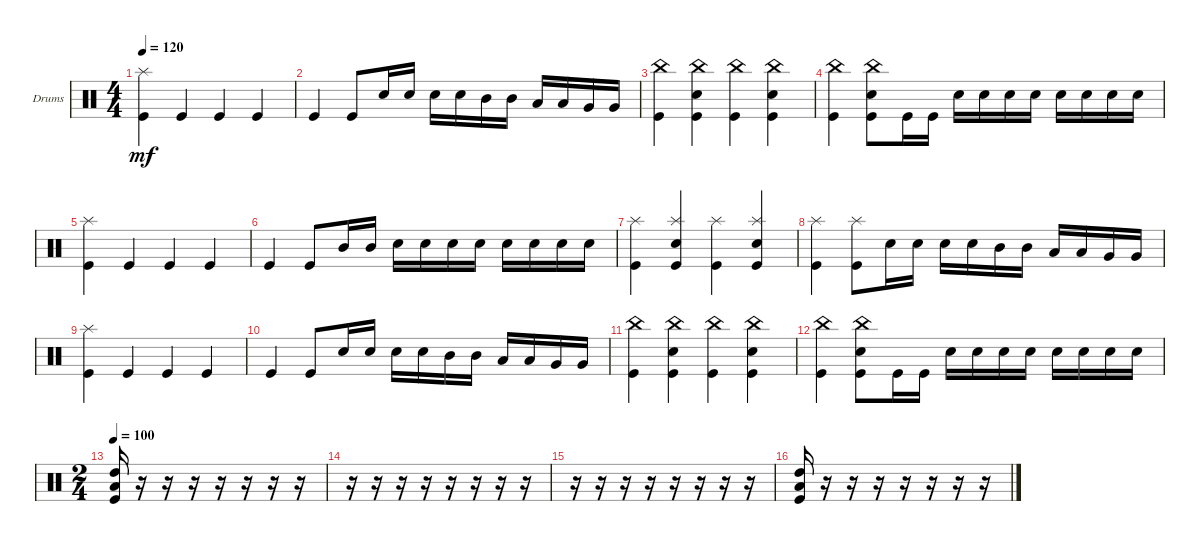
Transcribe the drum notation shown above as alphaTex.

\bracketExtendMode groupsimilarinstruments
\firstSystemTrackNameOrientation horizontal
\otherSystemsTrackNameOrientation horizontal
\track ("Drumkit" "Drums") {instrument percussion}
\staff {score}
\articulation defaults
\ts (4 4)
\tempo 120
\clef neutral
\ks c
("Kick (hit)" "Splash (hit)").4{dy mf} "Kick (hit)".4 "Kick (hit)".4 "Kick (hit)".4 |
"Kick (hit)".4 "Kick (hit)".8 "Snare (hit) 2".16 "Snare (hit) 2".16 "Snare (hit) 2".16 "Snare (hit) 2".16 "Mid Tom (hit)".16 "Mid Tom (hit)".16 "Low Tom (hit)".16 "Low Tom (hit)".16 "Very Low Tom (hit)".16 "Very Low Tom (hit)".16 |
("Kick (hit)" "China (hit)").4 ("Kick (hit)" "China (hit)" "Snare (hit) 2").4 ("Kick (hit)" "China (hit)").4 ("Kick (hit)" "China (hit)" "Snare (hit) 2").4 |
("Kick (hit)" "China (hit)").4 ("Kick (hit)" "China (hit)" "Snare (hit) 2").8 "Kick (hit)".16 "Kick (hit)".16 "Snare (hit) 2".16 "Snare (hit) 2".16 "Snare (hit) 2".16 "Snare (hit) 2".16 "Snare (hit) 2".16 "Snare (hit) 2".16 "Snare (hit) 2".16 "Snare (hit) 2".16 |
("Kick (hit)" "Splash (hit)").4 "Kick (hit)".4 "Kick (hit)".4 "Kick (hit)".4 |
"Kick (hit)".4 "Kick (hit)".8 "Mid Tom (hit)".16 "Mid Tom (hit)".16 "Snare (hit) 2".16 "Snare (hit) 2".16 "Snare (hit) 2".16 "Snare (hit) 2".16 "Snare (hit) 2".16 "Snare (hit) 2".16 "Snare (hit) 2".16 "Snare (hit) 2".16 |
("Kick (hit)" "Splash (hit)").4 ("Kick (hit)" "Splash (hit)" "Snare (hit) 2").4 ("Kick (hit)" "Splash (hit)").4 ("Kick (hit)" "Splash (hit)" "Snare (hit) 2").4 |
("Splash (hit)" "Kick (hit)").4 ("Kick (hit)" "Splash (hit)").8 "Snare (hit) 2".16 "Snare (hit) 2".16 "Snare (hit) 2".16 "Snare (hit) 2".16 "Mid Tom (hit)".16 "Mid Tom (hit)".16 "Low Tom (hit)".16 "Low Tom (hit)".16 "Very Low Tom (hit)".16 "Very Low Tom (hit)".16 |
("Kick (hit)" "Splash (hit)").4 "Kick (hit)".4 "Kick (hit)".4 "Kick (hit)".4 |
"Kick (hit)".4 "Kick (hit)".8 "Snare (hit) 2".16 "Snare (hit) 2".16 "Snare (hit) 2".16 "Snare (hit) 2".16 "Mid Tom (hit)".16 "Mid Tom (hit)".16 "Low Tom (hit)".16 "Low Tom (hit)".16 "Very Low Tom (hit)".16 "Very Low Tom (hit)".16 |
("Kick (hit)" "China (hit)").4 ("Kick (hit)" "China (hit)" "Snare (hit) 2").4 ("Kick (hit)" "China (hit)").4 ("Kick (hit)" "China (hit)" "Snare (hit) 2").4 |
("Kick (hit)" "China (hit)").4 ("Kick (hit)" "China (hit)" "Snare (hit) 2").8 "Kick (hit)".16 "Kick (hit)".16 "Snare (hit) 2".16 "Snare (hit) 2".16 "Snare (hit) 2".16 "Snare (hit) 2".16 "Snare (hit) 2".16 "Snare (hit) 2".16 "Snare (hit) 2".16 "Snare (hit) 2".16 |
\ts (2 4)
\tempo 100
("Kick (hit)" "Low Tom (hit)" "High Tom (hit)").16 r.16 r.16 r.16 r.16 r.16 r.16 r.16 |
r.16 r.16 r.16 r.16 r.16 r.16 r.16 r.16 |
r.16 r.16 r.16 r.16 r.16 r.16 r.16 r.16 |
("Kick (hit)" "Low Tom (hit)" "High Tom (hit)").16 r.16 r.16 r.16 r.16 r.16 r.16 r.16
